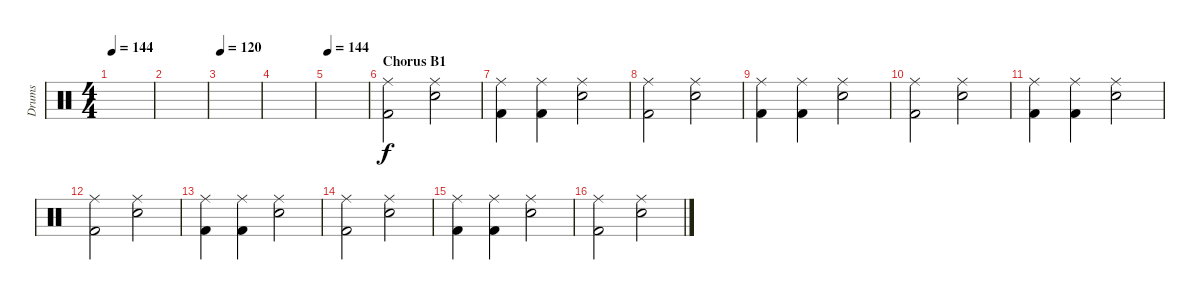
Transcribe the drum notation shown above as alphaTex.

\track ("Drums" "Drums") {instrument percussion}
\staff {score}
\articulation defaults
\ts (4 4)
\tempo 144
\clef neutral
\ks c
|
|
\tempo 120
|
|
\tempo 144
|
\section ("" "Chorus B1")
("Ride (middle)" "Kick (hit) 2").2 ("Snare (hit) 2" "Ride (middle)").2 |
("Ride (middle)" "Kick (hit) 2").4 ("Ride (middle)" "Kick (hit) 2").4 ("Snare (hit) 2" "Ride (middle)").2 |
("Ride (middle)" "Kick (hit) 2").2 ("Snare (hit) 2" "Ride (middle)").2 |
("Ride (middle)" "Kick (hit) 2").4 ("Ride (middle)" "Kick (hit) 2").4 ("Snare (hit) 2" "Ride (middle)").2 |
("Ride (middle)" "Kick (hit) 2").2 ("Snare (hit) 2" "Ride (middle)").2 |
("Ride (middle)" "Kick (hit) 2").4 ("Ride (middle)" "Kick (hit) 2").4 ("Snare (hit) 2" "Ride (middle)").2 |
("Ride (middle)" "Kick (hit) 2").2 ("Snare (hit) 2" "Ride (middle)").2 |
("Ride (middle)" "Kick (hit) 2").4 ("Ride (middle)" "Kick (hit) 2").4 ("Snare (hit) 2" "Ride (middle)").2 |
("Ride (middle)" "Kick (hit) 2").2 ("Snare (hit) 2" "Ride (middle)").2 |
("Ride (middle)" "Kick (hit) 2").4 ("Ride (middle)" "Kick (hit) 2").4 ("Snare (hit) 2" "Ride (middle)").2 |
("Ride (middle)" "Kick (hit) 2").2 ("Snare (hit) 2" "Ride (middle)").2
